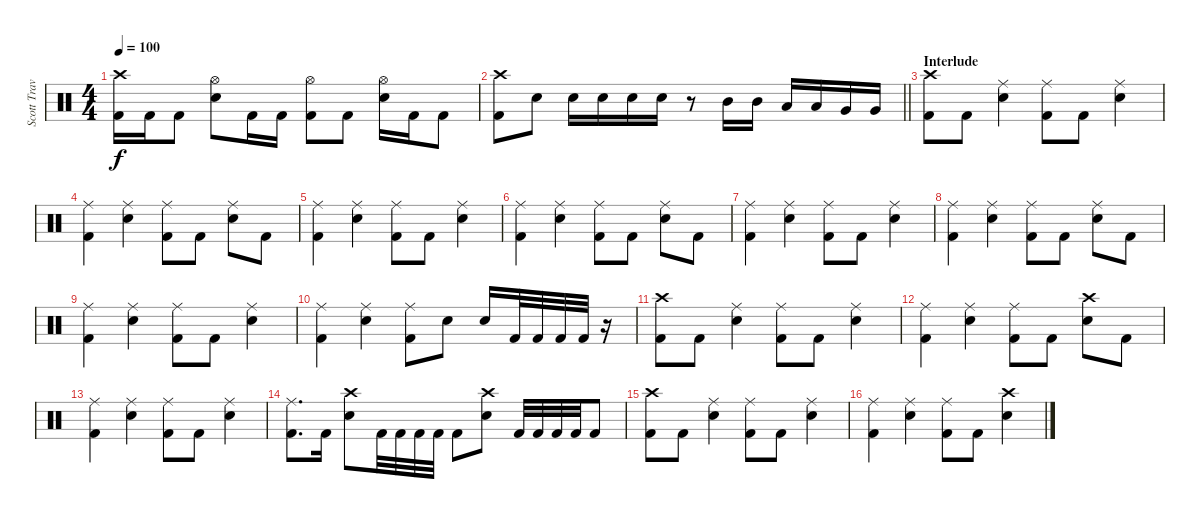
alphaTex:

\track ("Scott Travis" "Scott Trav") {instrument percussion}
\staff {score}
\articulation defaults
\ts (4 4)
\tempo 100
\clef neutral
\ks c
("Crash high (hit)" "Kick (hit) 2").16{dy f} "Kick (hit) 2".16 "Kick (hit) 2".8 ("Hi-Hat (open)" "Snare (hit) 2").8 "Kick (hit) 2".16 "Kick (hit) 2".16 ("Hi-Hat (open)" "Kick (hit) 2").8 "Kick (hit) 2".8 ("Hi-Hat (open)" "Snare (hit) 2").16 "Kick (hit) 2".16 "Kick (hit) 2".8 |
\barLineRight lightlight
("Crash high (hit)" "Kick (hit) 2").8 "Snare (hit) 2".8 "Snare (hit) 2".16 "Snare (hit) 2".16 "Snare (hit) 2".16 "Snare (hit) 2".16 r.8 "Mid Tom (hit)".16 "Mid Tom (hit)".16 "Low Tom (hit)".16 "Low Tom (hit)".16 "Very Low Tom (hit)".16 "Very Low Tom (hit)".16 |
\section ("" "Interlude")
("Crash high (hit)" "Kick (hit) 2").8 "Kick (hit) 2".8 ("Ride (middle)" "Snare (hit) 2").4 ("Ride (middle)" "Kick (hit) 2").8 "Kick (hit) 2".8 ("Ride (middle)" "Snare (hit) 2").4 |
("Ride (middle)" "Kick (hit) 2").4 ("Ride (middle)" "Snare (hit) 2").4 ("Ride (middle)" "Kick (hit) 2").8 "Kick (hit) 2".8 ("Ride (middle)" "Snare (hit) 2").8 "Kick (hit) 2".8 |
("Ride (middle)" "Kick (hit) 2").4 ("Ride (middle)" "Snare (hit) 2").4 ("Ride (middle)" "Kick (hit) 2").8 "Kick (hit) 2".8 ("Ride (middle)" "Snare (hit) 2").4 |
("Ride (middle)" "Kick (hit) 2").4 ("Ride (middle)" "Snare (hit) 2").4 ("Ride (middle)" "Kick (hit) 2").8 "Kick (hit) 2".8 ("Ride (middle)" "Snare (hit) 2").8 "Kick (hit) 2".8 |
("Ride (middle)" "Kick (hit) 2").4 ("Ride (middle)" "Snare (hit) 2").4 ("Ride (middle)" "Kick (hit) 2").8 "Kick (hit) 2".8 ("Ride (middle)" "Snare (hit) 2").4 |
("Ride (middle)" "Kick (hit) 2").4 ("Ride (middle)" "Snare (hit) 2").4 ("Ride (middle)" "Kick (hit) 2").8 "Kick (hit) 2".8 ("Ride (middle)" "Snare (hit) 2").8 "Kick (hit) 2".8 |
("Ride (middle)" "Kick (hit) 2").4 ("Ride (middle)" "Snare (hit) 2").4 ("Ride (middle)" "Kick (hit) 2").8 "Kick (hit) 2".8 ("Ride (middle)" "Snare (hit) 2").4 |
("Ride (middle)" "Kick (hit) 2").4 ("Ride (middle)" "Snare (hit) 2").4 ("Ride (middle)" "Kick (hit) 2").8 "Snare (hit) 2".8 "Snare (hit) 2".16 "Kick (hit) 2".32 "Kick (hit) 2".32 "Kick (hit) 2".32 "Kick (hit) 2".32 r.16 |
("Crash high (hit)" "Kick (hit) 2").8 "Kick (hit) 2".8 ("Ride (middle)" "Snare (hit) 2").4 ("Ride (middle)" "Kick (hit) 2").8 "Kick (hit) 2".8 ("Ride (middle)" "Snare (hit) 2").4 |
("Ride (middle)" "Kick (hit) 2").4 ("Ride (middle)" "Snare (hit) 2").4 ("Ride (middle)" "Kick (hit) 2").8 "Kick (hit) 2".8 ("Crash high (hit)" "Snare (hit) 2").8 "Kick (hit) 2".8 |
("Ride (middle)" "Kick (hit) 2").4 ("Ride (middle)" "Snare (hit) 2").4 ("Ride (middle)" "Kick (hit) 2").8 "Kick (hit) 2".8 ("Ride (middle)" "Snare (hit) 2").4 |
("Ride (middle)" "Kick (hit) 2").8{d} "Kick (hit) 2".16 ("Crash high (hit)" "Snare (hit) 2").8 "Kick (hit) 2".32 "Kick (hit) 2".32 "Kick (hit) 2".32 "Kick (hit) 2".32 "Kick (hit) 2".8 ("Crash high (hit)" "Snare (hit) 2").8 "Kick (hit) 2".32 "Kick (hit) 2".32 "Kick (hit) 2".32 "Kick (hit) 2".32 "Kick (hit) 2".8 |
("Crash high (hit)" "Kick (hit) 2").8 "Kick (hit) 2".8 ("Ride (middle)" "Snare (hit) 2").4 ("Ride (middle)" "Kick (hit) 2").8 "Kick (hit) 2".8 ("Ride (middle)" "Snare (hit) 2").4 |
("Ride (middle)" "Kick (hit) 2").4 ("Ride (middle)" "Snare (hit) 2").4 ("Ride (middle)" "Kick (hit) 2").8 "Kick (hit) 2".8 ("Crash high (hit)" "Snare (hit) 2").4
